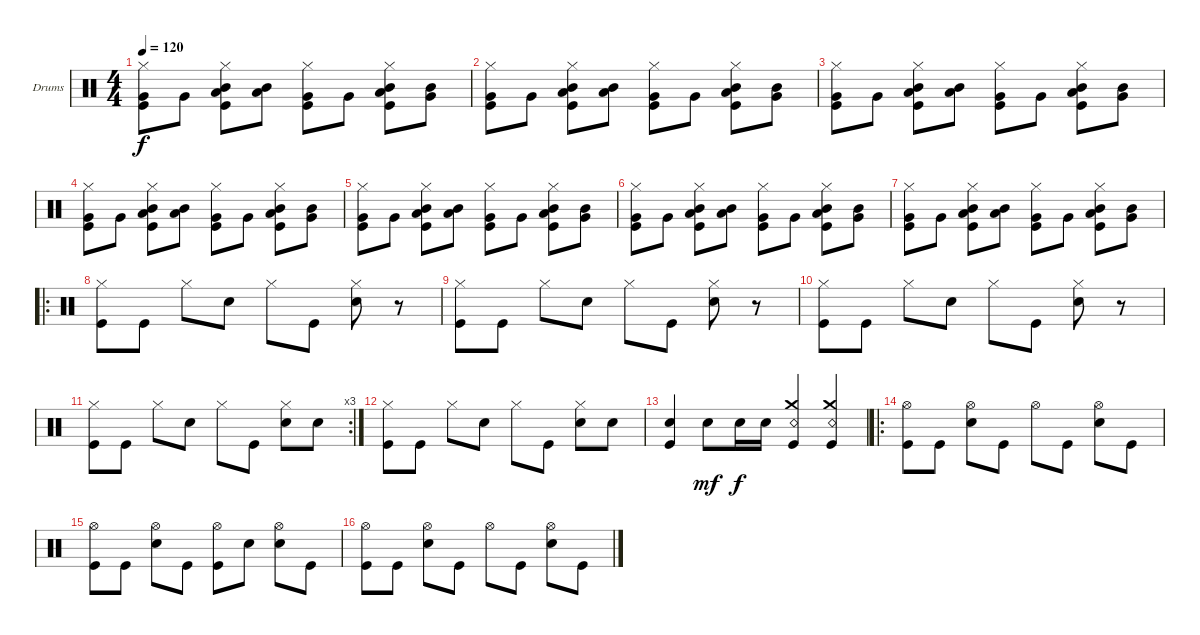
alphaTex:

\bracketExtendMode groupsimilarinstruments
\firstSystemTrackNameOrientation horizontal
\otherSystemsTrackNameOrientation horizontal
\track ("Drumkit" "Drums") {instrument percussion}
\staff {score}
\articulation defaults
\ts (4 4)
\tempo 120
\clef neutral
\ks c
("Hi-Hat (closed)" "Kick (hit)" "Very Low Tom (hit)").8{dy f} "Very Low Tom (hit)".8 ("Hi-Hat (closed)" "Kick (hit)" "Low Tom (hit)" "Mid Tom (hit)").8 ("Low Tom (hit)" "Mid Tom (hit)").8 ("Hi-Hat (closed)" "Kick (hit)" "Very Low Tom (hit)").8 "Very Low Tom (hit)".8 ("Hi-Hat (closed)" "Kick (hit)" "Mid Tom (hit)" "Low Tom (hit)").8 ("Mid Tom (hit)" "Very Low Tom (hit)").8 |
("Hi-Hat (closed)" "Kick (hit)" "Very Low Tom (hit)").8 "Very Low Tom (hit)".8 ("Hi-Hat (closed)" "Kick (hit)" "Low Tom (hit)" "Mid Tom (hit)").8 ("Low Tom (hit)" "Mid Tom (hit)").8 ("Hi-Hat (closed)" "Kick (hit)" "Very Low Tom (hit)").8 "Very Low Tom (hit)".8 ("Hi-Hat (closed)" "Kick (hit)" "Mid Tom (hit)" "Low Tom (hit)").8 ("Mid Tom (hit)" "Very Low Tom (hit)").8 |
("Hi-Hat (closed)" "Kick (hit)" "Very Low Tom (hit)").8 "Very Low Tom (hit)".8 ("Hi-Hat (closed)" "Kick (hit)" "Low Tom (hit)" "Mid Tom (hit)").8 ("Low Tom (hit)" "Mid Tom (hit)").8 ("Hi-Hat (closed)" "Kick (hit)" "Very Low Tom (hit)").8 "Very Low Tom (hit)".8 ("Hi-Hat (closed)" "Kick (hit)" "Mid Tom (hit)" "Low Tom (hit)").8 ("Mid Tom (hit)" "Very Low Tom (hit)").8 |
("Hi-Hat (closed)" "Kick (hit)" "Very Low Tom (hit)").8 "Very Low Tom (hit)".8 ("Hi-Hat (closed)" "Kick (hit)" "Low Tom (hit)" "Mid Tom (hit)").8 ("Low Tom (hit)" "Mid Tom (hit)").8 ("Hi-Hat (closed)" "Kick (hit)" "Very Low Tom (hit)").8 "Very Low Tom (hit)".8 ("Hi-Hat (closed)" "Kick (hit)" "Mid Tom (hit)" "Low Tom (hit)").8 ("Mid Tom (hit)" "Very Low Tom (hit)").8 |
("Hi-Hat (closed)" "Kick (hit)" "Very Low Tom (hit)").8 "Very Low Tom (hit)".8 ("Hi-Hat (closed)" "Kick (hit)" "Low Tom (hit)" "Mid Tom (hit)").8 ("Low Tom (hit)" "Mid Tom (hit)").8 ("Hi-Hat (closed)" "Kick (hit)" "Very Low Tom (hit)").8 "Very Low Tom (hit)".8 ("Hi-Hat (closed)" "Kick (hit)" "Mid Tom (hit)" "Low Tom (hit)").8 ("Mid Tom (hit)" "Very Low Tom (hit)").8 |
("Hi-Hat (closed)" "Kick (hit)" "Very Low Tom (hit)").8 "Very Low Tom (hit)".8 ("Hi-Hat (closed)" "Kick (hit)" "Low Tom (hit)" "Mid Tom (hit)").8 ("Low Tom (hit)" "Mid Tom (hit)").8 ("Hi-Hat (closed)" "Kick (hit)" "Very Low Tom (hit)").8 "Very Low Tom (hit)".8 ("Hi-Hat (closed)" "Kick (hit)" "Mid Tom (hit)" "Low Tom (hit)").8 ("Mid Tom (hit)" "Very Low Tom (hit)").8 |
("Hi-Hat (closed)" "Kick (hit)" "Very Low Tom (hit)").8 "Very Low Tom (hit)".8 ("Hi-Hat (closed)" "Kick (hit)" "Low Tom (hit)" "Mid Tom (hit)").8 ("Low Tom (hit)" "Mid Tom (hit)").8 ("Hi-Hat (closed)" "Kick (hit)" "Very Low Tom (hit)").8 "Very Low Tom (hit)".8 ("Hi-Hat (closed)" "Kick (hit)" "Mid Tom (hit)" "Low Tom (hit)").8 ("Mid Tom (hit)" "Very Low Tom (hit)").8 |
\ro
("Hi-Hat (closed)" "Kick (hit)").8 "Kick (hit)".8 "Hi-Hat (closed)".8 "Snare (hit) 2".8 "Hi-Hat (closed)".8 "Kick (hit)".8 ("Hi-Hat (closed)" "Snare (hit) 2").8 r.8 |
("Hi-Hat (closed)" "Kick (hit)").8 "Kick (hit)".8 "Hi-Hat (closed)".8 "Snare (hit) 2".8 "Hi-Hat (closed)".8 "Kick (hit)".8 ("Hi-Hat (closed)" "Snare (hit) 2").8 r.8 |
("Hi-Hat (closed)" "Kick (hit)").8 "Kick (hit)".8 "Hi-Hat (closed)".8 "Snare (hit) 2".8 "Hi-Hat (closed)".8 "Kick (hit)".8 ("Hi-Hat (closed)" "Snare (hit) 2").8 r.8 |
\rc 3
("Hi-Hat (closed)" "Kick (hit)").8 "Kick (hit)".8 "Hi-Hat (closed)".8 "Snare (hit) 2".8 "Hi-Hat (closed)".8 "Kick (hit)".8 ("Hi-Hat (closed)" "Snare (hit) 2").8 "Snare (hit) 2".8 |
("Hi-Hat (closed)" "Kick (hit)").8 "Kick (hit)".8 "Hi-Hat (closed)".8 "Snare (hit) 2".8 "Hi-Hat (closed)".8 "Kick (hit)".8 ("Hi-Hat (closed)" "Snare (hit) 2").8 "Snare (hit) 2".8 |
("Snare (hit) 2" "Kick (hit)").4 "Snare (hit) 2".8{dy mf} "Snare (hit) 2".16{dy f} "Snare (hit) 2".16 ("Crash medium (hit)" "Kick (hit)" "Snare (rim shot)").4 ("Kick (hit)" "Crash medium (hit)" "Snare (rim shot)").4 |
\ro
("Hi-Hat (open)" "Kick (hit)").8 "Kick (hit)".8 ("Hi-Hat (open)" "Snare (hit) 2").8 "Kick (hit)".8 "Hi-Hat (open)".8 "Kick (hit)".8 ("Hi-Hat (open)" "Snare (hit) 2").8 "Kick (hit)".8 |
("Hi-Hat (open)" "Kick (hit)").8 "Kick (hit)".8 ("Hi-Hat (open)" "Snare (hit) 2").8 "Kick (hit)".8 ("Hi-Hat (open)" "Kick (hit)").8 "Snare (hit) 2".8 ("Hi-Hat (open)" "Snare (hit) 2").8 "Kick (hit)".8 |
("Hi-Hat (open)" "Kick (hit)").8 "Kick (hit)".8 ("Hi-Hat (open)" "Snare (hit) 2").8 "Kick (hit)".8 "Hi-Hat (open)".8 "Kick (hit)".8 ("Hi-Hat (open)" "Snare (hit) 2").8 "Kick (hit)".8
